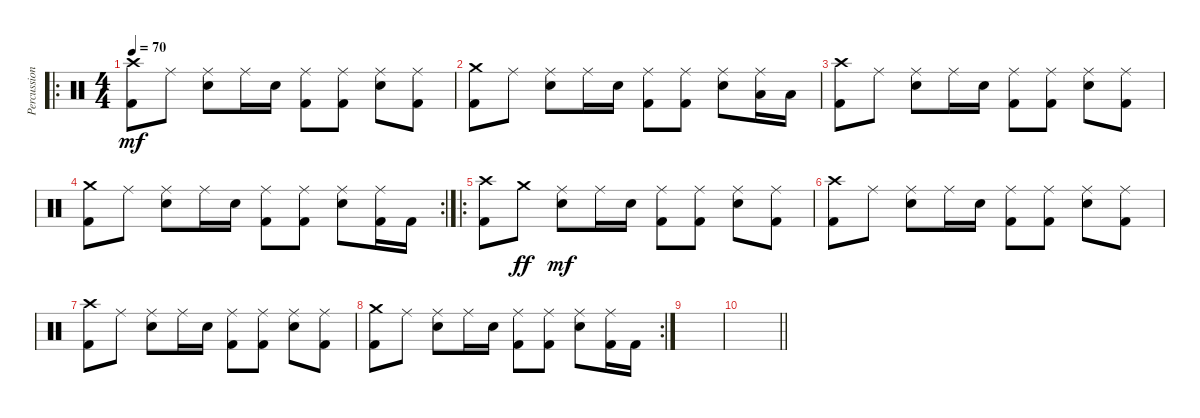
\track ("Percussion" "Percussion") {instrument percussion}
\staff {score}
\articulation defaults
\ro
\ts (4 4)
\tempo 70
\clef neutral
\ks c
("Crash high (hit)" "Kick (hit) 2").8{dy mf} "Ride (middle)".8 ("Ride (middle)" "Snare (hit) 2").8 "Ride (middle)".16 "Snare (hit) 2".16 ("Ride (middle)" "Kick (hit) 2").8 ("Ride (middle)" "Kick (hit) 2").8 ("Ride (middle)" "Snare (hit) 2").8 ("Ride (middle)" "Kick (hit) 2").8 |
("Crash medium (hit)" "Kick (hit) 2").8 "Ride (middle)".8 ("Ride (middle)" "Snare (hit) 2").8 "Ride (middle)".16 "Snare (hit) 2".16 ("Ride (middle)" "Kick (hit) 2").8 ("Ride (middle)" "Kick (hit) 2").8 ("Ride (middle)" "Snare (hit) 2").8 ("Ride (middle)" "Low Tom (hit)").16 "Low Tom (hit)".16 |
("Crash high (hit)" "Kick (hit) 2").8 "Ride (middle)".8 ("Ride (middle)" "Snare (hit) 2").8 "Ride (middle)".16 "Snare (hit) 2".16 ("Ride (middle)" "Kick (hit) 2").8 ("Ride (middle)" "Kick (hit) 2").8 ("Ride (middle)" "Snare (hit) 2").8 ("Ride (middle)" "Kick (hit) 2").8 |
\rc 2
("Crash medium (hit)" "Kick (hit) 2").8 "Ride (middle)".8 ("Ride (middle)" "Snare (hit) 2").8 "Ride (middle)".16 "Snare (hit) 2".16 ("Ride (middle)" "Kick (hit) 2").8 ("Ride (middle)" "Kick (hit) 2").8 ("Ride (middle)" "Snare (hit) 2").8 ("Ride (middle)" "Kick (hit) 2").16 "Kick (hit) 2".16 |
\ro
("Crash high (hit)" "Kick (hit) 2").8 "Crash medium (hit)".8{dy ff} ("Ride (middle)" "Snare (hit) 2").8{dy mf} "Ride (middle)".16 "Snare (hit) 2".16 ("Ride (middle)" "Kick (hit) 2").8 ("Ride (middle)" "Kick (hit) 2").8 ("Ride (middle)" "Snare (hit) 2").8 ("Ride (middle)" "Kick (hit) 2").8 |
("Crash high (hit)" "Kick (hit) 2").8 "Ride (middle)".8 ("Ride (middle)" "Snare (hit) 2").8 "Ride (middle)".16 "Snare (hit) 2".16 ("Ride (middle)" "Kick (hit) 2").8 ("Ride (middle)" "Kick (hit) 2").8 ("Ride (middle)" "Snare (hit) 2").8 ("Ride (middle)" "Kick (hit) 2").8 |
("Crash high (hit)" "Kick (hit) 2").8 "Ride (middle)".8 ("Ride (middle)" "Snare (hit) 2").8 "Ride (middle)".16 "Snare (hit) 2".16 ("Ride (middle)" "Kick (hit) 2").8 ("Ride (middle)" "Kick (hit) 2").8 ("Ride (middle)" "Snare (hit) 2").8 ("Ride (middle)" "Kick (hit) 2").8 |
\rc 2
("Crash medium (hit)" "Kick (hit) 2").8 "Ride (middle)".8 ("Ride (middle)" "Snare (hit) 2").8 "Ride (middle)".16 "Snare (hit) 2".16 ("Ride (middle)" "Kick (hit) 2").8 ("Ride (middle)" "Kick (hit) 2").8 ("Ride (middle)" "Snare (hit) 2").8 ("Ride (middle)" "Kick (hit) 2").16 "Kick (hit) 2".16 |
|
\barLineRight lightlight
